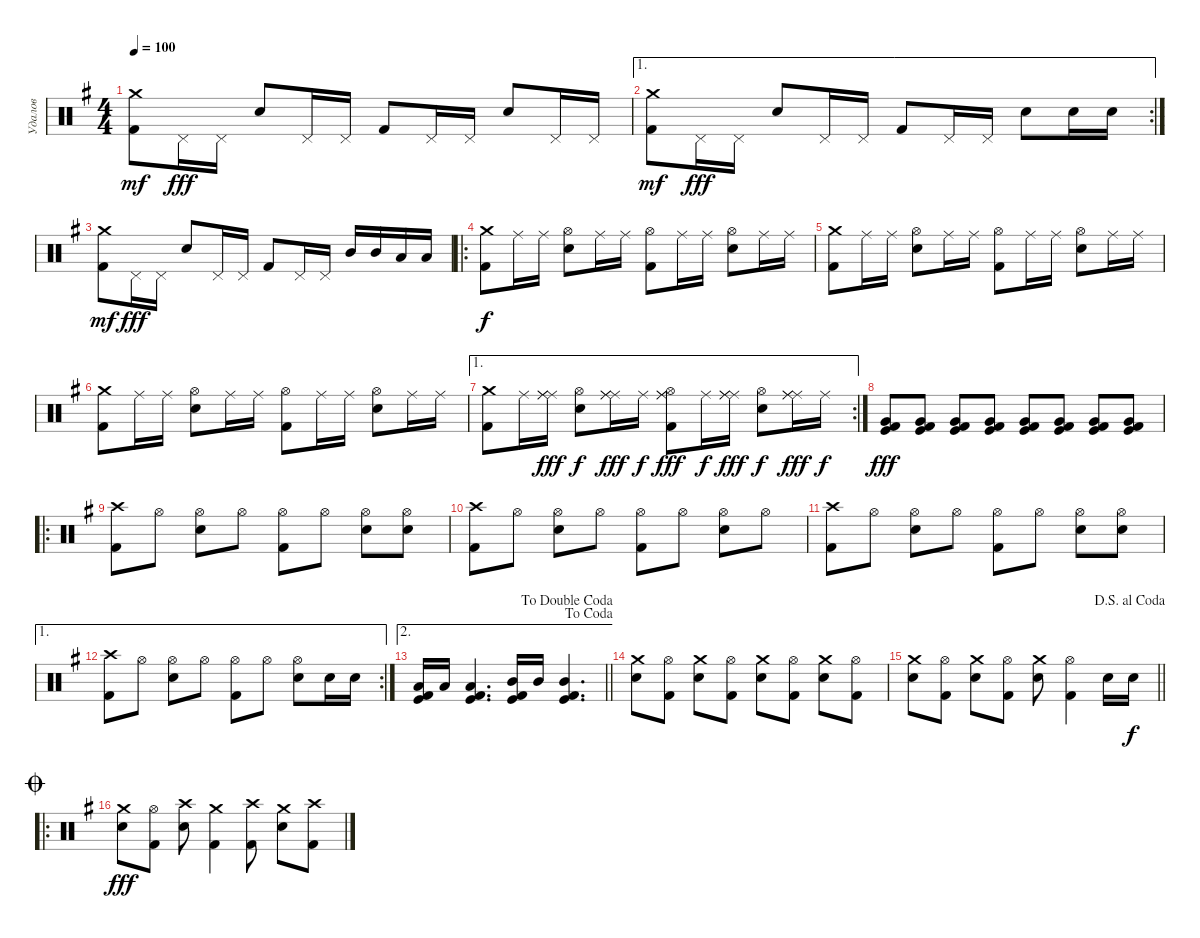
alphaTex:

\track ("Удалов" "Удалов") {instrument percussion}
\staff {score}
\articulation defaults
\ts (4 4)
\tempo 100
\clef neutral
\ks g
("Kick (hit) 2" "Crash medium (hit)").8{dy mf} "Pedal Hi-Hat (hit)".16{dy fff} "Pedal Hi-Hat (hit)".16 "Electric Snare (hit)".8 "Pedal Hi-Hat (hit)".16 "Pedal Hi-Hat (hit)".16 "Kick (hit) 2".8 "Pedal Hi-Hat (hit)".16 "Pedal Hi-Hat (hit)".16 "Electric Snare (hit)".8 "Pedal Hi-Hat (hit)".16 "Pedal Hi-Hat (hit)".16 |
\ae 1
\rc 2
("Kick (hit) 2" "Crash medium (hit)").8{dy mf} "Pedal Hi-Hat (hit)".16{dy fff} "Pedal Hi-Hat (hit)".16 "Electric Snare (hit)".8 "Pedal Hi-Hat (hit)".16 "Pedal Hi-Hat (hit)".16 "Kick (hit) 2".8 "Pedal Hi-Hat (hit)".16 "Pedal Hi-Hat (hit)".16 "Electric Snare (hit)".8 "Electric Snare (hit)".16 "Electric Snare (hit)".16 |
("Kick (hit) 2" "Crash medium (hit)").8{dy mf} "Pedal Hi-Hat (hit)".16{dy fff} "Pedal Hi-Hat (hit)".16 "Electric Snare (hit)".8 "Pedal Hi-Hat (hit)".16 "Pedal Hi-Hat (hit)".16 "Kick (hit) 2".8 "Pedal Hi-Hat (hit)".16 "Pedal Hi-Hat (hit)".16 "Mid Tom (hit)".16 "Mid Tom (hit)".16 "Low Tom (hit)".16 "Low Tom (hit)".16 |
\ro
("Kick (hit) 2" "Crash medium (hit)").8{dy f} "Ride (middle)".16 "Ride (middle)".16 ("Electric Snare (hit)" "Hi-Hat (open)").8 "Ride (middle)".16 "Ride (middle)".16 ("Kick (hit) 2" "Hi-Hat (open)").8 "Ride (middle)".16 "Ride (middle)".16 ("Electric Snare (hit)" "Hi-Hat (open)").8 "Ride (middle)".16 "Ride (middle)".16 |
("Kick (hit) 2" "Crash medium (hit)").8 "Ride (middle)".16 "Ride (middle)".16 ("Electric Snare (hit)" "Hi-Hat (open)").8 "Ride (middle)".16 "Ride (middle)".16 ("Kick (hit) 2" "Hi-Hat (open)").8 "Ride (middle)".16 "Ride (middle)".16 ("Electric Snare (hit)" "Hi-Hat (open)").8 "Ride (middle)".16 "Ride (middle)".16 |
("Kick (hit) 2" "Crash medium (hit)").8 "Ride (middle)".16 "Ride (middle)".16 ("Electric Snare (hit)" "Hi-Hat (open)").8 "Ride (middle)".16 "Ride (middle)".16 ("Kick (hit) 2" "Hi-Hat (open)").8 "Ride (middle)".16 "Ride (middle)".16 ("Electric Snare (hit)" "Hi-Hat (open)").8 "Ride (middle)".16 "Ride (middle)".16 |
\ae 1
\rc 2
("Kick (hit) 2" "Crash medium (hit)").8 "Ride (middle)".16 ("Ride (middle)" "Ride (middle)" "Ride (middle)").16{dy fff} ("Electric Snare (hit)" "Hi-Hat (open)").8{dy f} ("Ride (middle)" "Ride (middle)" "Ride (middle)").16{dy fff} "Ride (middle)".16{dy f} ("Kick (hit) 2" "Hi-Hat (open)" "Ride (middle)" "Ride (middle)").8{dy fff} "Ride (middle)".16{dy f} ("Ride (middle)" "Ride (middle)" "Ride (middle)").16{dy fff} ("Electric Snare (hit)" "Hi-Hat (open)").8{dy f} ("Ride (middle)" "Ride (middle)" "Ride (middle)").16{dy fff} "Ride (middle)".16{dy f} |
("Very Low Tom (hit)" "Kick (hit)" "Kick (hit) 2").8{dy fff} ("Very Low Tom (hit)" "Kick (hit)" "Kick (hit) 2").8 ("Very Low Tom (hit)" "Kick (hit)" "Kick (hit) 2").8 ("Very Low Tom (hit)" "Kick (hit)" "Kick (hit) 2").8 ("Very Low Tom (hit)" "Kick (hit)" "Kick (hit) 2").8 ("Very Low Tom (hit)" "Kick (hit)" "Kick (hit) 2").8 ("Very Low Tom (hit)" "Kick (hit)" "Kick (hit) 2").8 ("Very Low Tom (hit)" "Kick (hit)" "Kick (hit) 2").8 |
\ro
("Kick (hit) 2" "Crash high (hit)").8 "Hi-Hat (open)".8 ("Electric Snare (hit)" "Hi-Hat (open)").8 "Hi-Hat (open)".8 ("Kick (hit) 2" "Hi-Hat (open)").8 "Hi-Hat (open)".8 ("Electric Snare (hit)" "Hi-Hat (open)").8 ("Electric Snare (hit)" "Hi-Hat (open)").8 |
("Kick (hit) 2" "Crash high (hit)").8 "Hi-Hat (open)".8 ("Electric Snare (hit)" "Hi-Hat (open)").8 "Hi-Hat (open)".8 ("Kick (hit) 2" "Hi-Hat (open)").8 "Hi-Hat (open)".8 ("Electric Snare (hit)" "Hi-Hat (open)").8 "Hi-Hat (open)".8 |
("Kick (hit) 2" "Crash high (hit)").8 "Hi-Hat (open)".8 ("Electric Snare (hit)" "Hi-Hat (open)").8 "Hi-Hat (open)".8 ("Kick (hit) 2" "Hi-Hat (open)").8 "Hi-Hat (open)".8 ("Electric Snare (hit)" "Hi-Hat (open)").8 ("Electric Snare (hit)" "Hi-Hat (open)").8 |
\ae 1
\rc 2
("Kick (hit) 2" "Crash high (hit)").8 "Hi-Hat (open)".8 ("Electric Snare (hit)" "Hi-Hat (open)").8 "Hi-Hat (open)".8 ("Kick (hit) 2" "Hi-Hat (open)").8 "Hi-Hat (open)".8 ("Electric Snare (hit)" "Hi-Hat (open)").8 "Electric Snare (hit)".16 "Electric Snare (hit)".16 |
\ae 2
\jump dacoda
\jump dadoublecoda
\barLineRight lightlight
("Low Tom (hit)" "Kick (hit) 2" "Kick (hit)").16 "Low Tom (hit)".16 ("Low Tom (hit)" "Kick (hit)" "Kick (hit) 2").4{d} ("Mid Tom (hit)" "Kick (hit)" "Kick (hit) 2").16 "Mid Tom (hit)".16 ("Mid Tom (hit)" "Kick (hit)" "Kick (hit) 2").4{d} |
("Electric Snare (hit)" "Crash medium (hit)").8 ("Kick (hit) 2" "Hi-Hat (open)").8 ("Electric Snare (hit)" "Crash medium (hit)").8 ("Kick (hit) 2" "Hi-Hat (open)").8 ("Electric Snare (hit)" "Crash medium (hit)").8 ("Kick (hit) 2" "Hi-Hat (open)").8 ("Electric Snare (hit)" "Crash medium (hit)").8 ("Kick (hit) 2" "Hi-Hat (open)").8 |
\jump dalsegnoalcoda
\barLineRight lightlight
("Electric Snare (hit)" "Crash medium (hit)").8 ("Kick (hit) 2" "Hi-Hat (open)").8 ("Electric Snare (hit)" "Crash medium (hit)").8 ("Kick (hit) 2" "Hi-Hat (open)").8 ("Electric Snare (hit)" "Crash medium (hit)").8 ("Kick (hit) 2" "Hi-Hat (open)").4 "Electric Snare (hit)".16 "Electric Snare (hit)".16{dy f} |
\ro
\jump coda
("Electric Snare (hit)" "Crash medium (hit)").8{dy fff} ("Kick (hit) 2" "Hi-Hat (open)").8 ("Electric Snare (hit)" "Crash high (hit)").8 ("Kick (hit) 2" "Crash medium (hit)").4 ("Kick (hit) 2" "Crash high (hit)").8 ("Electric Snare (hit)" "Crash medium (hit)").8 ("Kick (hit) 2" "Crash high (hit)").8
